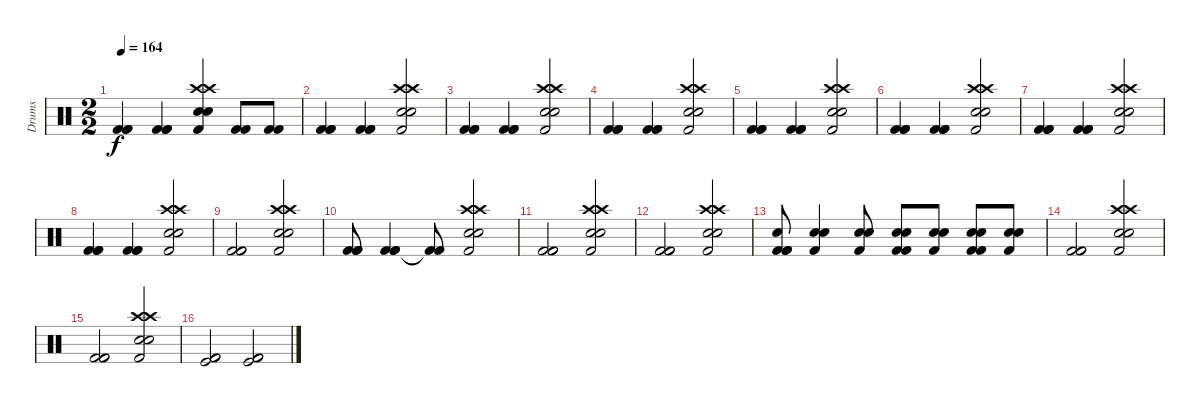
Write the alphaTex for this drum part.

\track ("Drums" "Drums") {instrument percussion}
\staff {score}
\articulation defaults
\ts (2 2)
\tempo 164
\clef neutral
\ks c
("Kick (hit) 2" "Kick (hit) 2" "Kick (hit) 2").4{dy f} ("Kick (hit) 2" "Kick (hit) 2" "Kick (hit) 2").4 ("Crash high (hit)" "Kick (hit) 2" "Snare (hit) 2" "Snare (hit) 2" "Crash high (hit)").4 ("Kick (hit) 2" "Kick (hit) 2").8 ("Kick (hit) 2" "Kick (hit) 2").8 |
("Kick (hit) 2" "Kick (hit) 2" "Kick (hit) 2").4 ("Kick (hit) 2" "Kick (hit) 2" "Kick (hit) 2").4 ("Crash high (hit)" "Kick (hit) 2" "Snare (hit) 2" "Snare (hit) 2" "Crash high (hit)").2 |
("Kick (hit) 2" "Kick (hit) 2" "Kick (hit) 2").4 ("Kick (hit) 2" "Kick (hit) 2" "Kick (hit) 2").4 ("Crash high (hit)" "Kick (hit) 2" "Snare (hit) 2" "Snare (hit) 2" "Crash high (hit)").2 |
("Kick (hit) 2" "Kick (hit) 2" "Kick (hit) 2").4 ("Kick (hit) 2" "Kick (hit) 2" "Kick (hit) 2").4 ("Crash high (hit)" "Kick (hit) 2" "Snare (hit) 2" "Snare (hit) 2" "Crash high (hit)").2 |
("Kick (hit) 2" "Kick (hit) 2" "Kick (hit) 2").4 ("Kick (hit) 2" "Kick (hit) 2" "Kick (hit) 2").4 ("Crash high (hit)" "Kick (hit) 2" "Snare (hit) 2" "Snare (hit) 2" "Crash high (hit)").2 |
("Kick (hit) 2" "Kick (hit) 2" "Kick (hit) 2").4 ("Kick (hit) 2" "Kick (hit) 2" "Kick (hit) 2").4 ("Crash high (hit)" "Kick (hit) 2" "Snare (hit) 2" "Snare (hit) 2" "Crash high (hit)").2 |
("Kick (hit) 2" "Kick (hit) 2" "Kick (hit) 2").4 ("Kick (hit) 2" "Kick (hit) 2" "Kick (hit) 2").4 ("Crash high (hit)" "Kick (hit) 2" "Snare (hit) 2" "Snare (hit) 2" "Crash high (hit)").2 |
("Kick (hit) 2" "Kick (hit) 2" "Kick (hit) 2").4 ("Kick (hit) 2" "Kick (hit) 2" "Kick (hit) 2").4 ("Crash high (hit)" "Kick (hit) 2" "Snare (hit) 2" "Snare (hit) 2" "Crash high (hit)").2 |
("Kick (hit) 2" "Kick (hit) 2" "Kick (hit) 2").2 ("Crash high (hit)" "Kick (hit) 2" "Snare (hit) 2" "Snare (hit) 2" "Crash high (hit)").2 |
("Kick (hit) 2" "Kick (hit) 2" "Kick (hit) 2").8 ("Kick (hit) 2" "Kick (hit) 2" "Kick (hit) 2").4 ("Kick (hit) 2"{t} "Kick (hit) 2"{t}).8 ("Crash high (hit)" "Kick (hit) 2" "Snare (hit) 2" "Snare (hit) 2" "Crash high (hit)").2 |
("Kick (hit) 2" "Kick (hit) 2" "Kick (hit) 2").2 ("Crash high (hit)" "Kick (hit) 2" "Snare (hit) 2" "Snare (hit) 2" "Crash high (hit)").2 |
("Kick (hit) 2" "Kick (hit) 2" "Kick (hit) 2").2 ("Crash high (hit)" "Kick (hit) 2" "Snare (hit) 2" "Snare (hit) 2" "Crash high (hit)").2 |
("Kick (hit) 2" "Kick (hit) 2" "Snare (hit) 2" "Kick (hit) 2").8 ("Kick (hit) 2" "Snare (hit) 2" "Snare (hit) 2").4 ("Kick (hit) 2" "Snare (hit) 2" "Snare (hit) 2").8 ("Kick (hit) 2" "Snare (hit) 2" "Snare (hit) 2" "Kick (hit) 2").8 ("Kick (hit) 2" "Snare (hit) 2" "Snare (hit) 2").8 ("Kick (hit) 2" "Snare (hit) 2" "Snare (hit) 2" "Kick (hit) 2").8 ("Kick (hit) 2" "Snare (hit) 2" "Snare (hit) 2").8 |
("Kick (hit) 2" "Kick (hit) 2" "Kick (hit) 2").2 ("Crash high (hit)" "Kick (hit) 2" "Snare (hit) 2" "Snare (hit) 2" "Crash high (hit)").2 |
("Kick (hit) 2" "Kick (hit) 2" "Kick (hit) 2").2 ("Crash high (hit)" "Kick (hit) 2" "Snare (hit) 2" "Snare (hit) 2" "Crash high (hit)").2 |
("Kick (hit) 2" "Kick (hit) 2" "Kick (hit)").2 ("Kick (hit) 2" "Kick (hit) 2" "Kick (hit)").2
